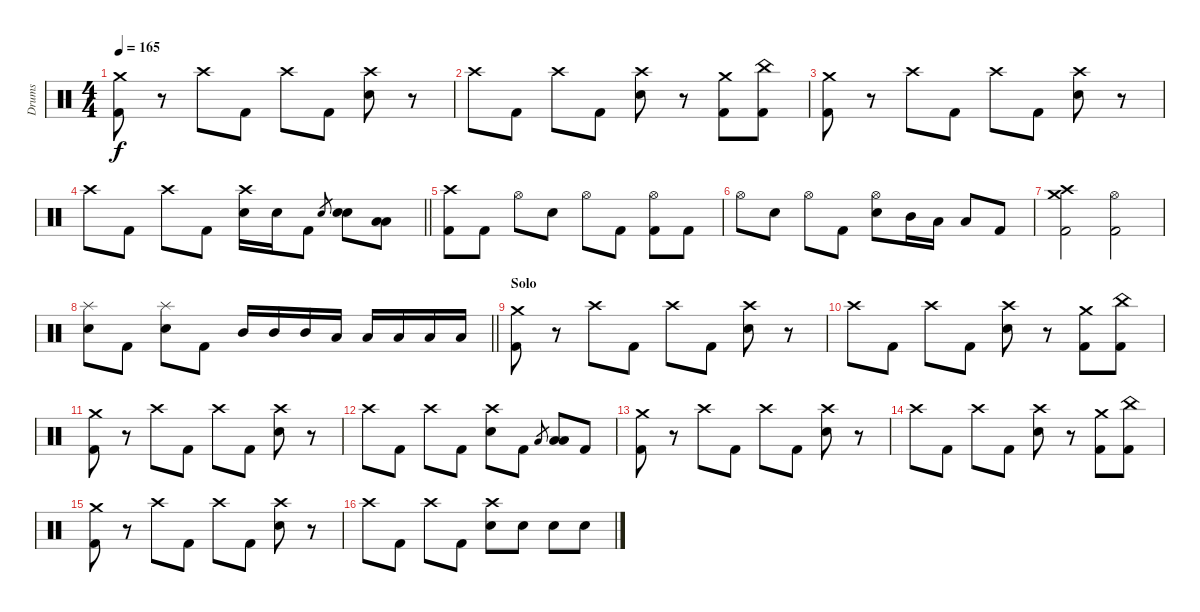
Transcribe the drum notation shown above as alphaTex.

\track ("Drums" "Drums") {instrument percussion}
\staff {score}
\articulation defaults
\ts (4 4)
\tempo 165
\clef neutral
\ks c
("Crash medium (hit)" "Kick (hit) 2").8{dy f} r.8 "Crash high (hit)".8 "Kick (hit) 2".8 "Crash high (hit)".8 "Kick (hit) 2".8 ("Crash high (hit)" "Electric Snare (hit)").8 r.8 |
"Crash high (hit)".8 "Kick (hit) 2".8 "Crash high (hit)".8 "Kick (hit) 2".8 ("Crash high (hit)" "Electric Snare (hit)").8 r.8 ("Crash medium (hit)" "Kick (hit) 2").8 ("China (hit)" "Kick (hit) 2").8 |
("Crash medium (hit)" "Kick (hit) 2").8 r.8 "Crash high (hit)".8 "Kick (hit) 2".8 "Crash high (hit)".8 "Kick (hit) 2".8 ("Crash high (hit)" "Electric Snare (hit)").8 r.8 |
\barLineRight lightlight "Crash high (hit)".8 "Kick (hit) 2".8 "Crash high (hit)".8 "Kick (hit) 2".8
("Crash high (hit)" "Electric Snare (hit)").16 "Electric Snare (hit)".16 "Kick (hit) 2".8 "Electric Snare (hit)".8{gr} ("Electric Snare (hit)" "Electric Snare (hit)").8 ("Low Tom (hit)" "Low Floor Tom (hit)").8 |
("Crash high (hit)" "Kick (hit) 2").8 "Kick (hit) 2".8 "Hi-Hat (open)".8 "Electric Snare (hit)".8 "Hi-Hat (open)".8 "Kick (hit) 2".8 ("Hi-Hat (open)" "Kick (hit) 2").8 "Kick (hit) 2".8 |
"Hi-Hat (open)".8 "Electric Snare (hit)".8 "Hi-Hat (open)".8 "Kick (hit) 2".8 ("Hi-Hat (open)" "Electric Snare (hit)").8 "Mid Tom (hit)".16 "Low Tom (hit)".16 "Low Floor Tom (hit)".8 "Kick (hit) 2".8 |
("Crash medium (hit)" "Crash high (hit)" "Kick (hit) 2").2 ("Hi-Hat (open)" "Kick (hit) 2").2 |
\barLineRight lightlight
("Splash (hit)" "Electric Snare (hit)").8 "Kick (hit) 2".8 ("Splash (hit)" "Electric Snare (hit)").8 "Kick (hit) 2".8 "Mid Tom (hit)".16 "Mid Tom (hit)".16 "Mid Tom (hit)".16 "Low Tom (hit)".16 "Low Tom (hit)".16 "Low Tom (hit)".16 "Low Floor Tom (hit)".16 "Low Floor Tom (hit)".16 |
\section ("" "Solo")
("Crash medium (hit)" "Kick (hit) 2").8 r.8 "Crash high (hit)".8 "Kick (hit) 2".8 "Crash high (hit)".8 "Kick (hit) 2".8 ("Crash high (hit)" "Electric Snare (hit)").8 r.8 |
"Crash high (hit)".8 "Kick (hit) 2".8 "Crash high (hit)".8 "Kick (hit) 2".8 ("Crash high (hit)" "Electric Snare (hit)").8 r.8 ("Crash medium (hit)" "Kick (hit) 2").8 ("China (hit)" "Kick (hit) 2").8 |
("Crash medium (hit)" "Kick (hit) 2").8 r.8 "Crash high (hit)".8 "Kick (hit) 2".8 "Crash high (hit)".8 "Kick (hit) 2".8 ("Crash high (hit)" "Electric Snare (hit)").8 r.8 |
"Crash high (hit)".8 "Kick (hit) 2".8 "Crash high (hit)".8 "Kick (hit) 2".8 ("Crash high (hit)" "Electric Snare (hit)").8 "Kick (hit) 2".8 "Low Tom (hit)".8{gr} ("Low Tom (hit)" "Low Floor Tom (hit)").8 "Kick (hit) 2".8 |
("Crash medium (hit)" "Kick (hit) 2").8 r.8 "Crash high (hit)".8 "Kick (hit) 2".8 "Crash high (hit)".8 "Kick (hit) 2".8 ("Crash high (hit)" "Electric Snare (hit)").8 r.8 |
"Crash high (hit)".8 "Kick (hit) 2".8 "Crash high (hit)".8 "Kick (hit) 2".8 ("Crash high (hit)" "Electric Snare (hit)").8 r.8 ("Crash medium (hit)" "Kick (hit) 2").8 ("China (hit)" "Kick (hit) 2").8 |
("Crash medium (hit)" "Kick (hit) 2").8 r.8 "Crash high (hit)".8 "Kick (hit) 2".8 "Crash high (hit)".8 "Kick (hit) 2".8 ("Crash high (hit)" "Electric Snare (hit)").8 r.8 |
"Crash high (hit)".8 "Kick (hit) 2".8 "Crash high (hit)".8 "Kick (hit) 2".8 ("Crash high (hit)" "Electric Snare (hit)").8 "Electric Snare (hit)".8 "Electric Snare (hit)".8 "Electric Snare (hit)".8
